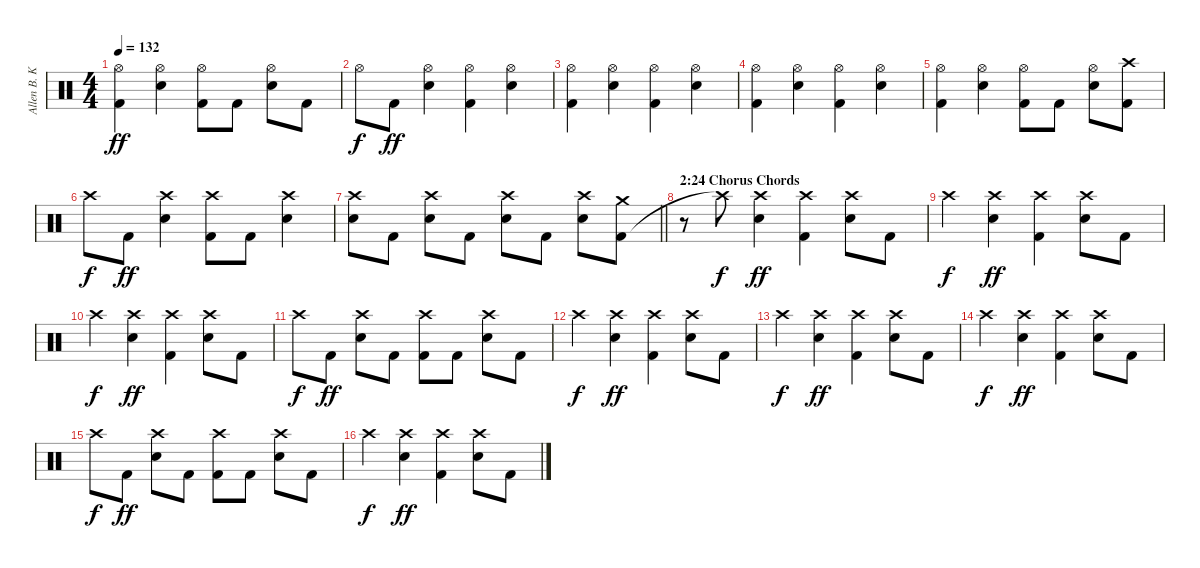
\track ("Allen B. Konstanz (Drums)" "Allen B. K") {instrument percussion}
\staff {score}
\articulation defaults
\ts (4 4)
\tempo 132
\clef neutral
\ks c
("Kick (hit) 2" "Hi-Hat (open)").4{dy ff} ("Electric Snare (hit)" "Hi-Hat (open)").4 ("Kick (hit) 2" "Hi-Hat (open)").8 "Kick (hit) 2".8 ("Electric Snare (hit)" "Hi-Hat (open)").8 "Kick (hit) 2".8 |
"Hi-Hat (open)".8{dy f} "Kick (hit) 2".8{dy ff} ("Electric Snare (hit)" "Hi-Hat (open)").4 ("Kick (hit) 2" "Hi-Hat (open)").4 ("Electric Snare (hit)" "Hi-Hat (open)").4 |
("Kick (hit) 2" "Hi-Hat (open)").4 ("Electric Snare (hit)" "Hi-Hat (open)").4 ("Kick (hit) 2" "Hi-Hat (open)").4 ("Electric Snare (hit)" "Hi-Hat (open)").4 |
("Kick (hit) 2" "Hi-Hat (open)").4 ("Electric Snare (hit)" "Hi-Hat (open)").4 ("Kick (hit) 2" "Hi-Hat (open)").4 ("Electric Snare (hit)" "Hi-Hat (open)").4 |
("Kick (hit) 2" "Hi-Hat (open)").4 ("Electric Snare (hit)" "Hi-Hat (open)").4 ("Kick (hit) 2" "Hi-Hat (open)").8 "Kick (hit) 2".8 ("Electric Snare (hit)" "Hi-Hat (open)").8 ("Kick (hit) 2" "Crash high (hit)").8 |
"Crash high (hit)".8{dy f} "Kick (hit) 2".8{dy ff} ("Electric Snare (hit)" "Crash high (hit)").4 ("Kick (hit) 2" "Crash high (hit)").8 "Kick (hit) 2".8 ("Electric Snare (hit)" "Crash high (hit)").4 |
\barLineRight lightlight
("Electric Snare (hit)" "Crash high (hit)").8 "Kick (hit) 2".8 ("Electric Snare (hit)" "Crash high (hit)").8 "Kick (hit) 2".8 ("Electric Snare (hit)" "Crash high (hit)").8 "Kick (hit) 2".8 ("Electric Snare (hit)" "Crash high (hit)").8 ("Kick (hit) 2" "Crash medium (hit)").8 |
\section ("" "2:24 Chorus Chords")
r.8 "Crash high (hit)"{t}.8{dy f} ("Electric Snare (hit)" "Crash high (hit)").4{dy ff} ("Kick (hit) 2" "Crash high (hit)").4 ("Electric Snare (hit)" "Crash high (hit)").8 "Kick (hit) 2".8 |
"Crash high (hit)".4{dy f} ("Electric Snare (hit)" "Crash high (hit)").4{dy ff} ("Kick (hit) 2" "Crash high (hit)").4 ("Electric Snare (hit)" "Crash high (hit)").8 "Kick (hit) 2".8 |
"Crash high (hit)".4{dy f} ("Electric Snare (hit)" "Crash high (hit)").4{dy ff} ("Kick (hit) 2" "Crash high (hit)").4 ("Electric Snare (hit)" "Crash high (hit)").8 "Kick (hit) 2".8 |
"Crash high (hit)".8{dy f} "Kick (hit) 2".8{dy ff} ("Electric Snare (hit)" "Crash high (hit)").8 "Kick (hit) 2".8 ("Kick (hit) 2" "Crash high (hit)").8 "Kick (hit) 2".8 ("Electric Snare (hit)" "Crash high (hit)").8 "Kick (hit) 2".8 |
"Crash high (hit)".4{dy f} ("Electric Snare (hit)" "Crash high (hit)").4{dy ff} ("Kick (hit) 2" "Crash high (hit)").4 ("Electric Snare (hit)" "Crash high (hit)").8 "Kick (hit) 2".8 |
"Crash high (hit)".4{dy f} ("Electric Snare (hit)" "Crash high (hit)").4{dy ff} ("Kick (hit) 2" "Crash high (hit)").4 ("Electric Snare (hit)" "Crash high (hit)").8 "Kick (hit) 2".8 |
"Crash high (hit)".4{dy f} ("Electric Snare (hit)" "Crash high (hit)").4{dy ff} ("Kick (hit) 2" "Crash high (hit)").4 ("Electric Snare (hit)" "Crash high (hit)").8 "Kick (hit) 2".8 |
"Crash high (hit)".8{dy f} "Kick (hit) 2".8{dy ff} ("Electric Snare (hit)" "Crash high (hit)").8 "Kick (hit) 2".8 ("Kick (hit) 2" "Crash high (hit)").8 "Kick (hit) 2".8 ("Electric Snare (hit)" "Crash high (hit)").8 "Kick (hit) 2".8 |
"Crash high (hit)".4{dy f} ("Electric Snare (hit)" "Crash high (hit)").4{dy ff} ("Kick (hit) 2" "Crash high (hit)").4 ("Electric Snare (hit)" "Crash high (hit)").8 "Kick (hit) 2".8
